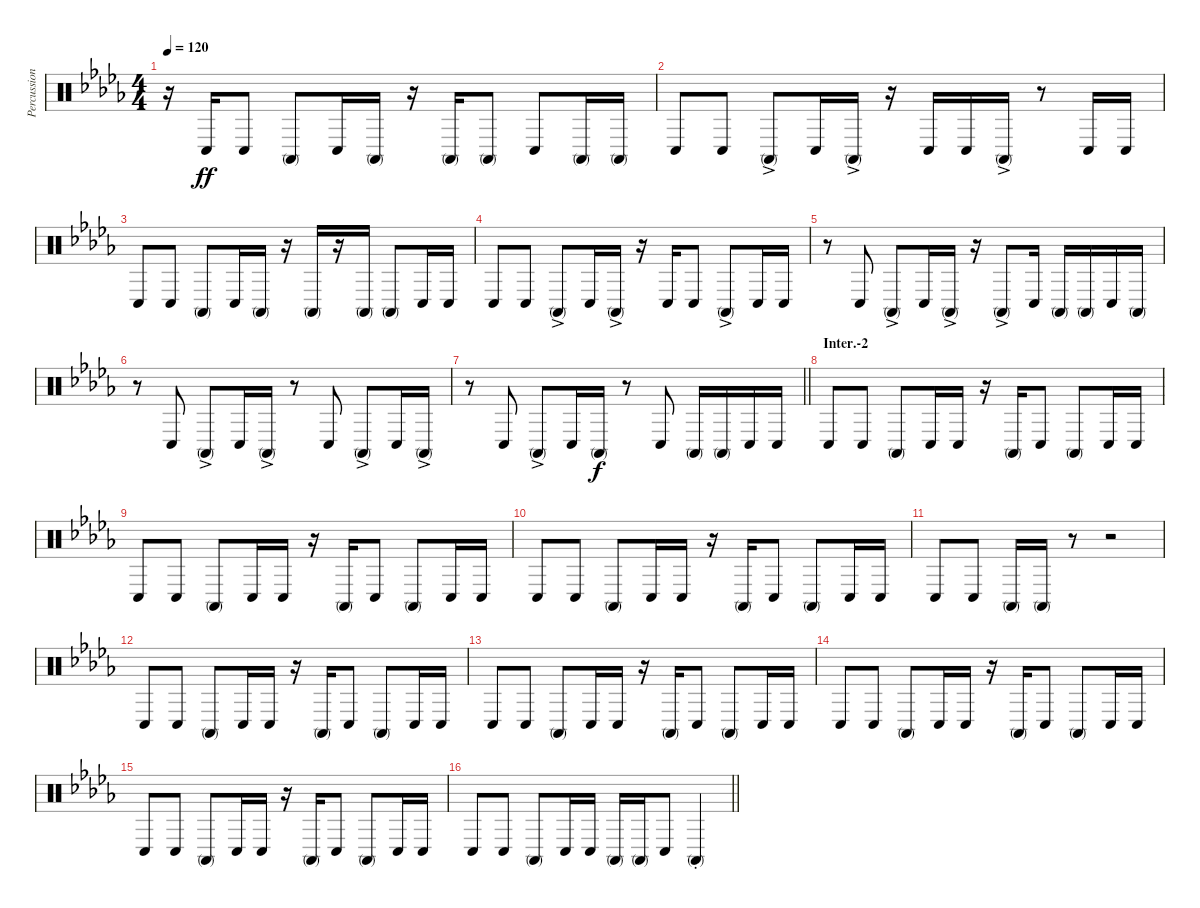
\track ("Percussion A (Tainaka Ritsu)" "Percussion") {instrument percussion}
\staff {score}
\articulation defaults
\ts (4 4)
\tempo 120
\clef neutral
\ks db
r.16{dy ff} "Conga low (hit)".16 "Conga low (hit)".8 "Conga high (mute)".8 "Conga low (hit)".16 "Conga high (mute)".16 r.16 "Conga high (mute)".16 "Conga high (mute)".8 "Conga low (hit)".8 "Conga high (mute)".16 "Conga high (mute)".16 |
"Conga low (hit)".8 "Conga low (hit)".8 "Conga high (mute)"{ac}.8 "Conga low (hit)".16 "Conga high (mute)"{ac}.16 r.16 "Conga low (hit)".16 "Conga low (hit)".16 "Conga high (mute)"{ac}.16 r.8 "Conga low (hit)".16 "Conga low (hit)".16 |
"Conga low (hit)".8 "Conga low (hit)".8 "Conga high (mute)".8 "Conga low (hit)".16 "Conga high (mute)".16 r.16 "Conga high (mute)".16 r.16 "Conga high (mute)".16 "Conga high (mute)".8 "Conga low (hit)".16 "Conga low (hit)".16 |
"Conga low (hit)".8 "Conga low (hit)".8 "Conga high (mute)"{ac}.8 "Conga low (hit)".16 "Conga high (mute)"{ac}.16 r.16 "Conga low (hit)".16 "Conga low (hit)".8 "Conga high (mute)"{ac}.8 "Conga low (hit)".16 "Conga low (hit)".16 |
r.8 "Conga low (hit)".8 "Conga high (mute)"{ac}.8 "Conga low (hit)".16 "Conga high (mute)"{ac}.16 r.16 "Conga high (mute)"{ac}.8 "Conga low (hit)".16 "Conga high (mute)".16 "Conga high (mute)".16 "Conga low (hit)".16 "Conga high (mute)".16 |
r.8 "Conga low (hit)".8 "Conga high (mute)"{ac}.8 "Conga low (hit)".16 "Conga high (mute)"{ac}.16 r.8 "Conga low (hit)".8 "Conga high (mute)"{ac}.8 "Conga low (hit)".16 "Conga high (mute)"{ac}.16 |
\barLineRight lightlight
r.8 "Conga low (hit)".8 "Conga high (mute)"{ac}.8 "Conga low (hit)".16 "Conga high (mute)".16{dy f} r.8 "Conga low (hit)".8 "Conga high (mute)".16 "Conga high (mute)".16 "Conga low (hit)".16 "Conga low (hit)".16 |
\section ("" "Inter.-2")
"Conga low (hit)".8 "Conga low (hit)".8 "Conga high (mute)".8 "Conga low (hit)".16 "Conga low (hit)".16 r.16 "Conga high (mute)".16 "Conga low (hit)".8 "Conga high (mute)".8 "Conga low (hit)".16 "Conga low (hit)".16 |
"Conga low (hit)".8 "Conga low (hit)".8 "Conga high (mute)".8 "Conga low (hit)".16 "Conga low (hit)".16 r.16 "Conga high (mute)".16 "Conga low (hit)".8 "Conga high (mute)".8 "Conga low (hit)".16 "Conga low (hit)".16 |
"Conga low (hit)".8 "Conga low (hit)".8 "Conga high (mute)".8 "Conga low (hit)".16 "Conga low (hit)".16 r.16 "Conga high (mute)".16 "Conga low (hit)".8 "Conga high (mute)".8 "Conga low (hit)".16 "Conga low (hit)".16 |
"Conga low (hit)".8 "Conga low (hit)".8 "Conga high (mute)".16 "Conga high (mute)".16 r.8 r.2 |
"Conga low (hit)".8 "Conga low (hit)".8 "Conga high (mute)".8 "Conga low (hit)".16 "Conga low (hit)".16 r.16 "Conga high (mute)".16 "Conga low (hit)".8 "Conga high (mute)".8 "Conga low (hit)".16 "Conga low (hit)".16 |
"Conga low (hit)".8 "Conga low (hit)".8 "Conga high (mute)".8 "Conga low (hit)".16 "Conga low (hit)".16 r.16 "Conga high (mute)".16 "Conga low (hit)".8 "Conga high (mute)".8 "Conga low (hit)".16 "Conga low (hit)".16 |
"Conga low (hit)".8 "Conga low (hit)".8 "Conga high (mute)".8 "Conga low (hit)".16 "Conga low (hit)".16 r.16 "Conga high (mute)".16 "Conga low (hit)".8 "Conga high (mute)".8 "Conga low (hit)".16 "Conga low (hit)".16 |
"Conga low (hit)".8 "Conga low (hit)".8 "Conga high (mute)".8 "Conga low (hit)".16 "Conga low (hit)".16 r.16 "Conga high (mute)".16 "Conga low (hit)".8 "Conga high (mute)".8 "Conga low (hit)".16 "Conga low (hit)".16 |
\barLineRight lightlight "Conga low (hit)".8 "Conga low (hit)".8 "Conga high (mute)".8 "Conga low (hit)".16 "Conga low (hit)".16 "Conga high (mute)".16 "Conga high (mute)".16 "Conga low (hit)".8 "Conga high (mute)"{st}.4
